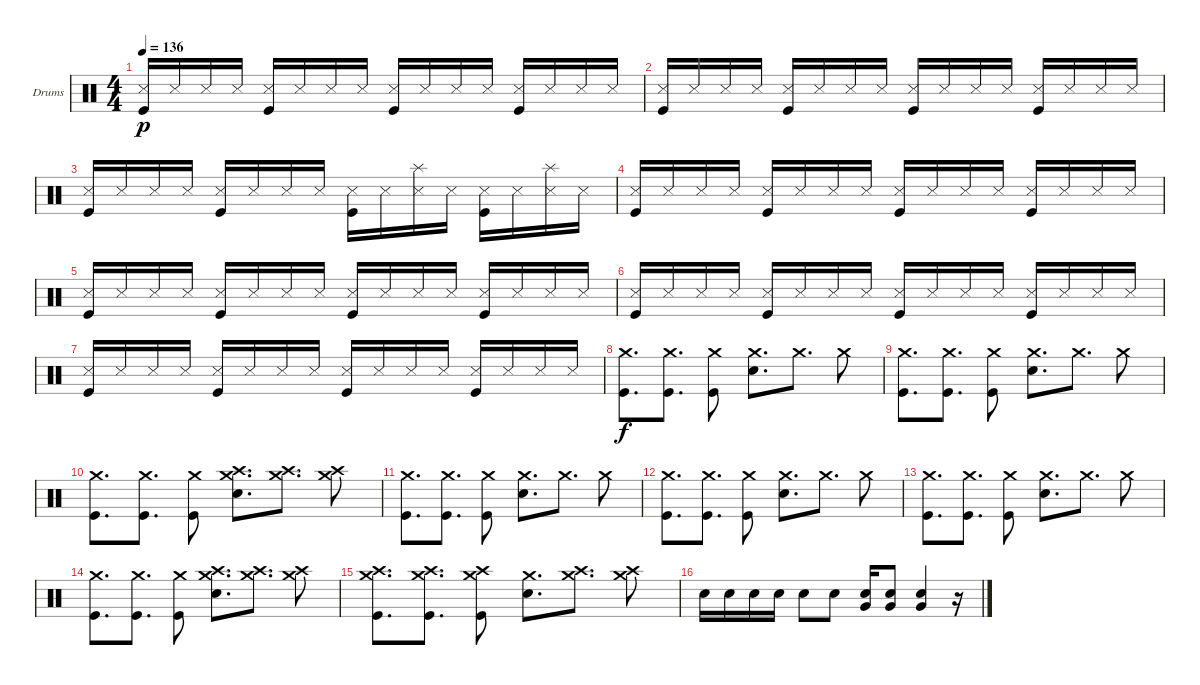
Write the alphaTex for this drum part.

\defaultSystemsLayout 4
\bracketExtendMode groupsimilarinstruments
\firstSystemTrackNameOrientation horizontal
\otherSystemsTrackNameOrientation horizontal
\track ("Lars Ulrich (Drums)" "Drums") {instrument percussion}
\staff {score}
\articulation defaults
\ts (4 4)
\tempo 136
\clef neutral
\ks c
("Snare (side stick) 3" "Kick (hit)").16{dy p} "Snare (side stick) 3".16 "Snare (side stick) 3".16 "Snare (side stick) 3".16 ("Snare (side stick) 3" "Kick (hit)").16 "Snare (side stick) 3".16 "Snare (side stick) 3".16 "Snare (side stick) 3".16 ("Snare (side stick) 3" "Kick (hit)").16 "Snare (side stick) 3".16 "Snare (side stick) 3".16 "Snare (side stick) 3".16 ("Snare (side stick) 3" "Kick (hit)").16 "Snare (side stick) 3".16 "Snare (side stick) 3".16 "Snare (side stick) 3".16 |
("Snare (side stick) 3" "Kick (hit)").16 "Snare (side stick) 3".16 "Snare (side stick) 3".16 "Snare (side stick) 3".16 ("Snare (side stick) 3" "Kick (hit)").16 "Snare (side stick) 3".16 "Snare (side stick) 3".16 "Snare (side stick) 3".16 ("Snare (side stick) 3" "Kick (hit)").16 "Snare (side stick) 3".16 "Snare (side stick) 3".16 "Snare (side stick) 3".16 ("Snare (side stick) 3" "Kick (hit)").16 "Snare (side stick) 3".16 "Snare (side stick) 3".16 "Snare (side stick) 3".16 |
("Snare (side stick) 3" "Kick (hit)").16 "Snare (side stick) 3".16 "Snare (side stick) 3".16 "Snare (side stick) 3".16 ("Snare (side stick) 3" "Kick (hit)").16 "Snare (side stick) 3".16 "Snare (side stick) 3".16 "Snare (side stick) 3".16 ("Snare (side stick) 3" "Kick (hit)").16 "Snare (side stick) 3".16 ("Splash (hit)" "Snare (side stick) 3").16 "Snare (side stick) 3".16 ("Snare (side stick) 3" "Kick (hit)").16 "Snare (side stick) 3".16 ("Splash (hit)" "Snare (side stick) 3").16 "Snare (side stick) 3".16 |
("Snare (side stick) 3" "Kick (hit)").16 "Snare (side stick) 3".16 "Snare (side stick) 3".16 "Snare (side stick) 3".16 ("Snare (side stick) 3" "Kick (hit)").16 "Snare (side stick) 3".16 "Snare (side stick) 3".16 "Snare (side stick) 3".16 ("Snare (side stick) 3" "Kick (hit)").16 "Snare (side stick) 3".16 "Snare (side stick) 3".16 "Snare (side stick) 3".16 ("Snare (side stick) 3" "Kick (hit)").16 "Snare (side stick) 3".16 "Snare (side stick) 3".16 "Snare (side stick) 3".16 |
("Snare (side stick) 3" "Kick (hit)").16 "Snare (side stick) 3".16 "Snare (side stick) 3".16 "Snare (side stick) 3".16 ("Snare (side stick) 3" "Kick (hit)").16 "Snare (side stick) 3".16 "Snare (side stick) 3".16 "Snare (side stick) 3".16 ("Snare (side stick) 3" "Kick (hit)").16 "Snare (side stick) 3".16 "Snare (side stick) 3".16 "Snare (side stick) 3".16 ("Snare (side stick) 3" "Kick (hit)").16 "Snare (side stick) 3".16 "Snare (side stick) 3".16 "Snare (side stick) 3".16 |
("Snare (side stick) 3" "Kick (hit)").16 "Snare (side stick) 3".16 "Snare (side stick) 3".16 "Snare (side stick) 3".16 ("Snare (side stick) 3" "Kick (hit)").16 "Snare (side stick) 3".16 "Snare (side stick) 3".16 "Snare (side stick) 3".16 ("Snare (side stick) 3" "Kick (hit)").16 "Snare (side stick) 3".16 "Snare (side stick) 3".16 "Snare (side stick) 3".16 ("Snare (side stick) 3" "Kick (hit)").16 "Snare (side stick) 3".16 "Snare (side stick) 3".16 "Snare (side stick) 3".16 |
("Snare (side stick) 3" "Kick (hit)").16 "Snare (side stick) 3".16 "Snare (side stick) 3".16 "Snare (side stick) 3".16 ("Snare (side stick) 3" "Kick (hit)").16 "Snare (side stick) 3".16 "Snare (side stick) 3".16 "Snare (side stick) 3".16 ("Snare (side stick) 3" "Kick (hit)").16 "Snare (side stick) 3".16 "Snare (side stick) 3".16 "Snare (side stick) 3".16 ("Snare (side stick) 3" "Kick (hit)").16 "Snare (side stick) 3".16 "Snare (side stick) 3".16 "Snare (side stick) 3".16 |
("Crash medium (hit)" "Kick (hit)").8{d dy f} ("Crash medium (hit)" "Kick (hit)").8{d} ("Crash medium (hit)" "Kick (hit)").8 ("Crash medium (hit)" "Snare (hit) 2").8{d} "Crash medium (hit)".8{d} "Crash medium (hit)".8 |
("Crash medium (hit)" "Kick (hit)").8{d} ("Crash medium (hit)" "Kick (hit)").8{d} ("Crash medium (hit)" "Kick (hit)").8 ("Crash medium (hit)" "Snare (hit) 2").8{d} "Crash medium (hit)".8{d} "Crash medium (hit)".8 |
("Crash medium (hit)" "Kick (hit)").8{d} ("Crash medium (hit)" "Kick (hit)").8{d} ("Crash medium (hit)" "Kick (hit)").8 ("Crash high (hit)" "Crash medium (hit)" "Snare (hit) 2").8{d} ("Crash high (hit)" "Crash medium (hit)").8{d} ("Crash high (hit)" "Crash medium (hit)").8 |
("Crash medium (hit)" "Kick (hit)").8{d} ("Crash medium (hit)" "Kick (hit)").8{d} ("Crash medium (hit)" "Kick (hit)").8 ("Crash medium (hit)" "Snare (hit) 2").8{d} "Crash medium (hit)".8{d} "Crash medium (hit)".8 |
("Crash medium (hit)" "Kick (hit)").8{d} ("Crash medium (hit)" "Kick (hit)").8{d} ("Crash medium (hit)" "Kick (hit)").8 ("Crash medium (hit)" "Snare (hit) 2").8{d} "Crash medium (hit)".8{d} "Crash medium (hit)".8 |
("Crash medium (hit)" "Kick (hit)").8{d} ("Crash medium (hit)" "Kick (hit)").8{d} ("Crash medium (hit)" "Kick (hit)").8 ("Crash medium (hit)" "Snare (hit) 2").8{d} "Crash medium (hit)".8{d} "Crash medium (hit)".8 |
("Crash medium (hit)" "Kick (hit)").8{d} ("Crash medium (hit)" "Kick (hit)").8{d} ("Crash medium (hit)" "Kick (hit)").8 ("Crash high (hit)" "Crash medium (hit)" "Snare (hit) 2").8{d} ("Crash high (hit)" "Crash medium (hit)").8{d} ("Crash high (hit)" "Crash medium (hit)").8 |
("Crash high (hit)" "Crash medium (hit)" "Kick (hit)").8{d} ("Crash high (hit)" "Crash medium (hit)" "Kick (hit)").8{d} ("Crash high (hit)" "Crash medium (hit)" "Kick (hit)").8 ("Crash medium (hit)" "Snare (hit) 2").8{d} ("Crash high (hit)" "Crash medium (hit)").8{d} ("Crash high (hit)" "Crash medium (hit)").8 |
"Snare (hit) 2".16 "Snare (hit) 2".16 "Snare (hit) 2".16 "Snare (hit) 2".16 "Snare (hit) 2".8 "Snare (hit) 2".8 ("Snare (hit) 2" "Very Low Tom (hit)").16 ("Snare (hit) 2" "Very Low Tom (hit)").8 ("Snare (hit) 2" "Very Low Tom (hit)").4 r.16
